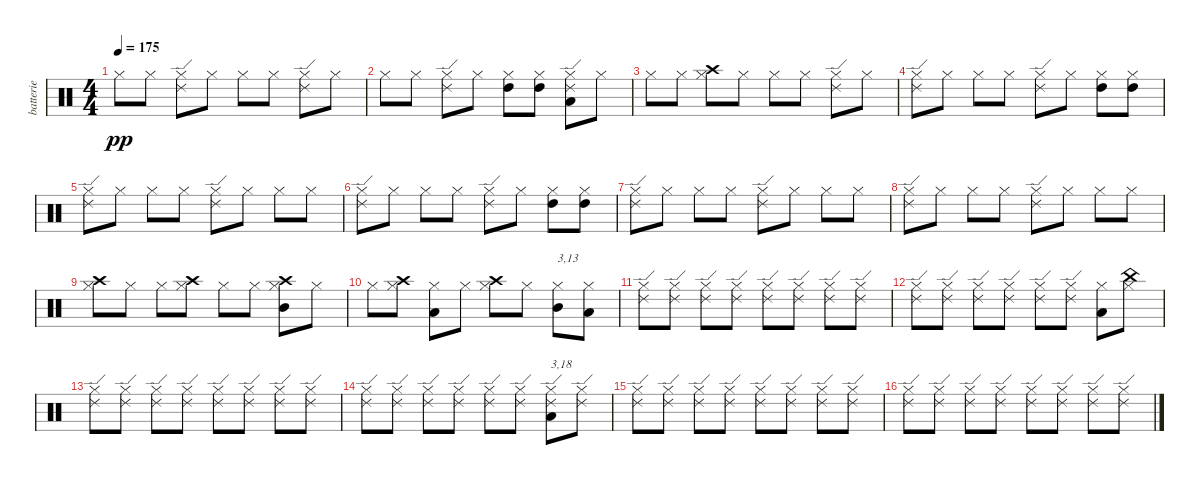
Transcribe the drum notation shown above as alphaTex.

\track ("batterie" "batterie") {instrument percussion}
\staff {score}
\articulation defaults
\ts (4 4)
\tempo 175
\clef neutral
\ks c "Hi-Hat (closed)".8{dy pp} "Hi-Hat (closed)".8
("Ride (edge) 2" "Hi-Hat (closed)").8 "Hi-Hat (closed)".8 "Hi-Hat (closed)".8 "Hi-Hat (closed)".8 ("Ride (edge) 2" "Hi-Hat (closed)").8 "Hi-Hat (closed)".8 |
"Hi-Hat (closed)".8 "Hi-Hat (closed)".8 ("Ride (edge) 2" "Hi-Hat (closed)").8 "Hi-Hat (closed)".8 ("High Tom (hit)" "Hi-Hat (closed)").8 ("High Tom (hit)" "Hi-Hat (closed)").8 ("Ride (edge) 2" "Low Tom (hit)" "Hi-Hat (closed)").8 "Hi-Hat (closed)".8 |
"Hi-Hat (closed)".8 "Hi-Hat (closed)".8 ("Crash high (hit)" "Hi-Hat (closed)").8 "Hi-Hat (closed)".8 "Hi-Hat (closed)".8 "Hi-Hat (closed)".8 ("Ride (edge) 2" "Hi-Hat (closed)").8 "Hi-Hat (closed)".8 |
("Ride (edge) 2" "Hi-Hat (closed)").8 "Hi-Hat (closed)".8 "Hi-Hat (closed)".8 "Hi-Hat (closed)".8 ("Ride (edge) 2" "Hi-Hat (closed)").8 "Hi-Hat (closed)".8 ("High Tom (hit)" "Hi-Hat (closed)").8 ("High Tom (hit)" "Hi-Hat (closed)").8 |
("Ride (edge) 2" "Hi-Hat (closed)").8 "Hi-Hat (closed)".8 "Hi-Hat (closed)".8 "Hi-Hat (closed)".8 ("Ride (edge) 2" "Hi-Hat (closed)").8 "Hi-Hat (closed)".8 "Hi-Hat (closed)".8 "Hi-Hat (closed)".8 |
("Ride (edge) 2" "Hi-Hat (closed)").8 "Hi-Hat (closed)".8 "Hi-Hat (closed)".8 "Hi-Hat (closed)".8 ("Ride (edge) 2" "Hi-Hat (closed)").8 "Hi-Hat (closed)".8 ("High Tom (hit)" "Hi-Hat (closed)").8 ("High Tom (hit)" "Hi-Hat (closed)").8 |
("Ride (edge) 2" "Hi-Hat (closed)").8 "Hi-Hat (closed)".8 "Hi-Hat (closed)".8 "Hi-Hat (closed)".8 ("Ride (edge) 2" "Hi-Hat (closed)").8 "Hi-Hat (closed)".8 "Hi-Hat (closed)".8 "Hi-Hat (closed)".8 |
("Ride (edge) 2" "Hi-Hat (closed)").8 "Hi-Hat (closed)".8 "Hi-Hat (closed)".8 "Hi-Hat (closed)".8 ("Ride (edge) 2" "Hi-Hat (closed)").8 "Hi-Hat (closed)".8 "Hi-Hat (closed)".8 "Hi-Hat (closed)".8 |
("Crash high (hit)" "Hi-Hat (closed)").8 "Hi-Hat (closed)".8 "Hi-Hat (closed)".8 ("Crash high (hit)" "Hi-Hat (closed)").8 "Hi-Hat (closed)".8 "Hi-Hat (closed)".8 ("Crash high (hit)" "Mid Tom (hit)" "Hi-Hat (closed)").8 "Hi-Hat (closed)".8 |
"Hi-Hat (closed)".8 ("Crash high (hit)" "Hi-Hat (closed)").8 ("Low Tom (hit)" "Hi-Hat (closed)").8 "Hi-Hat (closed)".8 ("Crash high (hit)" "Hi-Hat (closed)").8 "Hi-Hat (closed)".8 ("Mid Tom (hit)" "Hi-Hat (closed)").8{txt "3,13"} ("Low Tom (hit)" "Hi-Hat (closed)").8 |
("Ride (edge) 2" "Hi-Hat (closed)").8 ("Ride (edge) 2" "Hi-Hat (closed)").8 ("Ride (edge) 2" "Hi-Hat (closed)").8 ("Ride (edge) 2" "Hi-Hat (closed)").8 ("Ride (edge) 2" "Hi-Hat (closed)").8 ("Ride (edge) 2" "Hi-Hat (closed)").8 ("Ride (edge) 2" "Hi-Hat (closed)").8 ("Ride (edge) 2" "Hi-Hat (closed)").8 |
("Ride (edge) 2" "Hi-Hat (closed)").8 ("Ride (edge) 2" "Hi-Hat (closed)").8 ("Ride (edge) 2" "Hi-Hat (closed)").8 ("Ride (edge) 2" "Hi-Hat (closed)").8 ("Ride (edge) 2" "Hi-Hat (closed)").8 ("Ride (edge) 2" "Hi-Hat (closed)").8 ("Low Floor Tom (hit)" "Hi-Hat (closed)").8 ("China (hit)" "Hi-Hat (closed)").8 |
("Ride (edge) 2" "Hi-Hat (closed)").8 ("Ride (edge) 2" "Hi-Hat (closed)").8 ("Ride (edge) 2" "Hi-Hat (closed)").8 ("Ride (edge) 2" "Hi-Hat (closed)").8 ("Ride (edge) 2" "Hi-Hat (closed)").8 ("Ride (edge) 2" "Hi-Hat (closed)").8 ("Ride (edge) 2" "Hi-Hat (closed)").8 ("Ride (edge) 2" "Hi-Hat (closed)").8 |
("Ride (edge) 2" "Hi-Hat (closed)").8 ("Ride (edge) 2" "Hi-Hat (closed)").8 ("Ride (edge) 2" "Hi-Hat (closed)").8 ("Ride (edge) 2" "Hi-Hat (closed)").8 ("Ride (edge) 2" "Hi-Hat (closed)").8 ("Ride (edge) 2" "Hi-Hat (closed)").8 ("Ride (edge) 2" "Low Floor Tom (hit)" "Hi-Hat (closed)").8{txt "3,18"} ("Ride (edge) 2" "Hi-Hat (closed)").8 |
("Ride (edge) 2" "Hi-Hat (closed)").8 ("Ride (edge) 2" "Hi-Hat (closed)").8 ("Ride (edge) 2" "Hi-Hat (closed)").8 ("Ride (edge) 2" "Hi-Hat (closed)").8 ("Ride (edge) 2" "Hi-Hat (closed)").8 ("Ride (edge) 2" "Hi-Hat (closed)").8 ("Ride (edge) 2" "Hi-Hat (closed)").8 ("Ride (edge) 2" "Hi-Hat (closed)").8 |
("Ride (edge) 2" "Hi-Hat (closed)").8 ("Ride (edge) 2" "Hi-Hat (closed)").8 ("Ride (edge) 2" "Hi-Hat (closed)").8 ("Ride (edge) 2" "Hi-Hat (closed)").8 ("Ride (edge) 2" "Hi-Hat (closed)").8 ("Ride (edge) 2" "Hi-Hat (closed)").8 ("Ride (edge) 2" "Hi-Hat (closed)").8 ("Ride (edge) 2" "Hi-Hat (closed)").8
